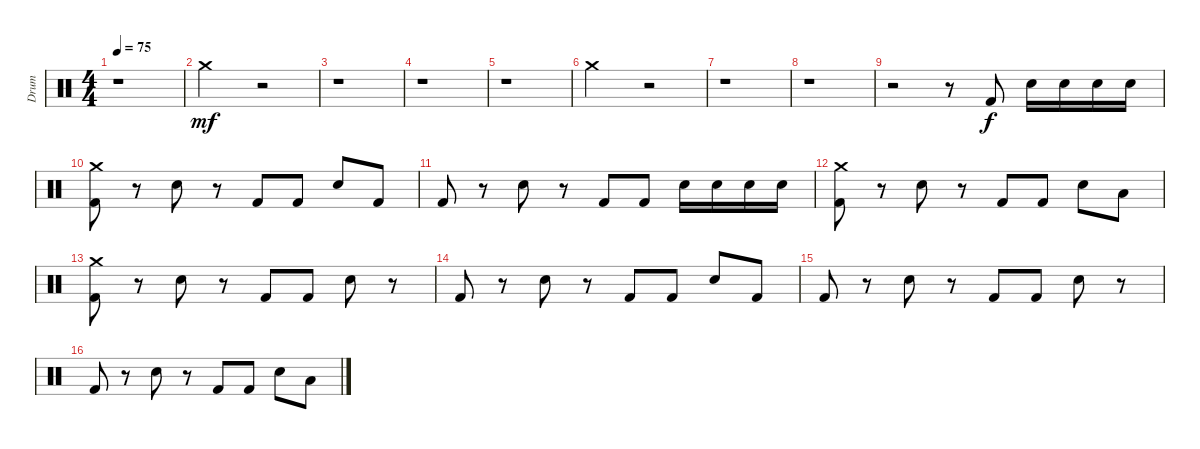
\track ("Drum" "Drum") {instrument percussion}
\staff {score}
\articulation defaults
\ts (4 4)
\tempo 75
\clef neutral
\ks c
r.1{dy mf} |
"Crash medium (hit)".2 r.2 |
r.1 |
r.1 |
r.1 |
"Crash medium (hit)".2 r.2 |
r.1 |
r.1 |
r.2 r.8 "Kick (hit) 2".8{dy f} "Snare (hit) 2".16 "Snare (hit) 2".16 "Electric Snare (hit)".16 "Electric Snare (hit)".16 |
("Kick (hit) 2" "Crash medium (hit)").8 r.8 "Snare (hit) 2".8 r.8 "Kick (hit) 2".8 "Kick (hit) 2".8 "Snare (hit) 2".8 "Kick (hit) 2".8 |
"Kick (hit) 2".8 r.8 "Snare (hit) 2".8 r.8 "Kick (hit) 2".8 "Kick (hit) 2".8 "Snare (hit) 2".16 "Snare (hit) 2".16 "Electric Snare (hit)".16 "Electric Snare (hit)".16 |
("Kick (hit) 2" "Crash medium (hit)").8 r.8 "Snare (hit) 2".8 r.8 "Kick (hit) 2".8 "Kick (hit) 2".8 "Snare (hit) 2".8 "Low Floor Tom (hit)".8 |
("Kick (hit) 2" "Crash medium (hit)").8 r.8 "Snare (hit) 2".8 r.8 "Kick (hit) 2".8 "Kick (hit) 2".8 "Snare (hit) 2".8 r.8 |
"Kick (hit) 2".8 r.8 "Snare (hit) 2".8 r.8 "Kick (hit) 2".8 "Kick (hit) 2".8 "Snare (hit) 2".8 "Kick (hit) 2".8 |
"Kick (hit) 2".8 r.8 "Snare (hit) 2".8 r.8 "Kick (hit) 2".8 "Kick (hit) 2".8 "Snare (hit) 2".8 r.8 |
"Kick (hit) 2".8 r.8 "Snare (hit) 2".8 r.8 "Kick (hit) 2".8 "Kick (hit) 2".8 "Snare (hit) 2".8 "Low Floor Tom (hit)".8
